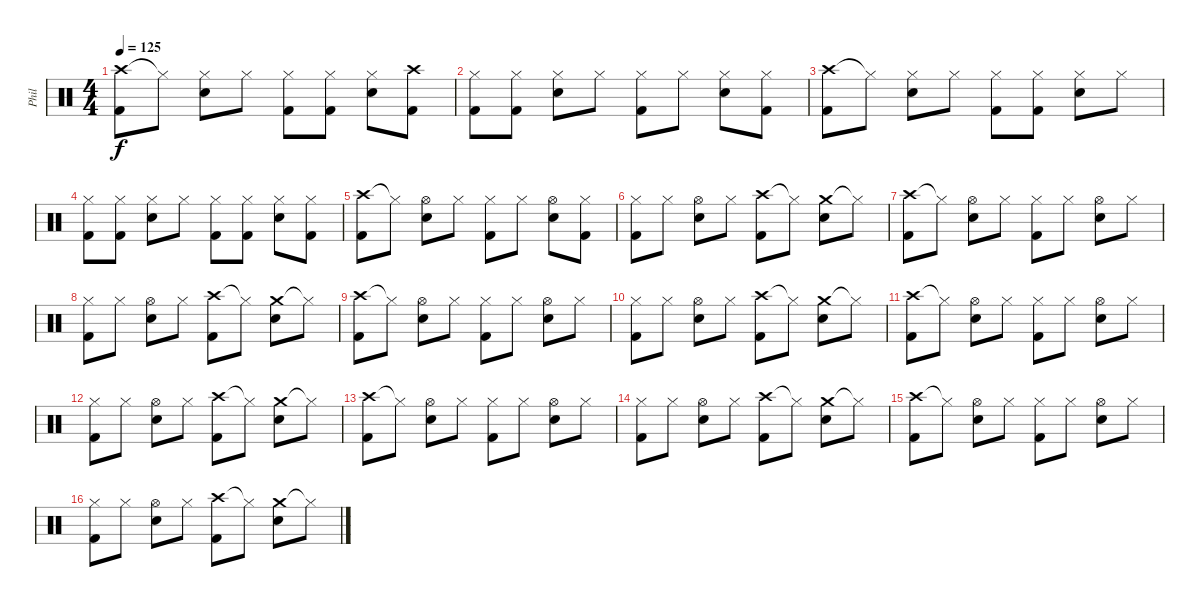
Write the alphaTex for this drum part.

\track ("Phil" "Phil") {instrument percussion}
\staff {score}
\articulation defaults
\ts (4 4)
\tempo 125
\clef neutral
\ks c
("Crash high (hit)" "Kick (hit) 2").8{dy f} "Hi-Hat (closed)"{t}.8 ("Hi-Hat (closed)" "Snare (hit) 2").8 "Hi-Hat (closed)".8 ("Hi-Hat (closed)" "Kick (hit) 2").8 ("Hi-Hat (closed)" "Kick (hit) 2").8 ("Hi-Hat (closed)" "Snare (hit) 2").8 ("Crash high (hit)" "Kick (hit) 2").8 |
("Hi-Hat (closed)" "Kick (hit) 2").8 ("Hi-Hat (closed)" "Kick (hit) 2").8 ("Hi-Hat (closed)" "Snare (hit) 2").8 "Hi-Hat (closed)".8 ("Hi-Hat (closed)" "Kick (hit) 2").8 "Hi-Hat (closed)".8 ("Hi-Hat (closed)" "Snare (hit) 2").8 ("Hi-Hat (closed)" "Kick (hit) 2").8 |
("Crash high (hit)" "Kick (hit) 2").8 "Hi-Hat (closed)"{t}.8 ("Hi-Hat (closed)" "Snare (hit) 2").8 "Hi-Hat (closed)".8 ("Hi-Hat (closed)" "Kick (hit) 2").8 ("Hi-Hat (closed)" "Kick (hit) 2").8 ("Hi-Hat (closed)" "Snare (hit) 2").8 "Hi-Hat (closed)".8 |
("Hi-Hat (closed)" "Kick (hit) 2").8 ("Hi-Hat (closed)" "Kick (hit) 2").8 ("Hi-Hat (closed)" "Snare (hit) 2").8 "Hi-Hat (closed)".8 ("Hi-Hat (closed)" "Kick (hit) 2").8 ("Hi-Hat (closed)" "Kick (hit) 2").8 ("Hi-Hat (closed)" "Snare (hit) 2").8 ("Hi-Hat (closed)" "Kick (hit) 2").8 |
("Crash high (hit)" "Kick (hit) 2").8 "Hi-Hat (closed)"{t}.8 ("Hi-Hat (open)" "Snare (hit) 2").8 "Hi-Hat (closed)".8 ("Hi-Hat (closed)" "Kick (hit) 2").8 "Hi-Hat (closed)".8 ("Hi-Hat (open)" "Snare (hit) 2").8 ("Hi-Hat (closed)" "Kick (hit) 2").8 |
("Hi-Hat (closed)" "Kick (hit) 2").8 "Hi-Hat (closed)".8 ("Hi-Hat (open)" "Snare (hit) 2").8 "Hi-Hat (closed)".8 ("Crash high (hit)" "Kick (hit) 2").8 "Hi-Hat (closed)"{t}.8 ("Crash medium (hit)" "Snare (hit) 2").8 "Hi-Hat (closed)"{t}.8 |
("Crash high (hit)" "Kick (hit) 2").8 "Hi-Hat (closed)"{t}.8 ("Hi-Hat (open)" "Snare (hit) 2").8 "Hi-Hat (closed)".8 ("Hi-Hat (closed)" "Kick (hit) 2").8 "Hi-Hat (closed)".8 ("Hi-Hat (open)" "Snare (hit) 2").8 "Hi-Hat (closed)".8 |
("Hi-Hat (closed)" "Kick (hit) 2").8 "Hi-Hat (closed)".8 ("Hi-Hat (open)" "Snare (hit) 2").8 "Hi-Hat (closed)".8 ("Crash high (hit)" "Kick (hit) 2").8 "Hi-Hat (closed)"{t}.8 ("Crash medium (hit)" "Snare (hit) 2").8 "Hi-Hat (closed)"{t}.8 |
("Crash high (hit)" "Kick (hit) 2").8 "Hi-Hat (closed)"{t}.8 ("Hi-Hat (open)" "Snare (hit) 2").8 "Hi-Hat (closed)".8 ("Hi-Hat (closed)" "Kick (hit) 2").8 "Hi-Hat (closed)".8 ("Hi-Hat (open)" "Snare (hit) 2").8 "Hi-Hat (closed)".8 |
("Hi-Hat (closed)" "Kick (hit) 2").8 "Hi-Hat (closed)".8 ("Hi-Hat (open)" "Snare (hit) 2").8 "Hi-Hat (closed)".8 ("Crash high (hit)" "Kick (hit) 2").8 "Hi-Hat (closed)"{t}.8 ("Crash medium (hit)" "Snare (hit) 2").8 "Hi-Hat (closed)"{t}.8 |
("Crash high (hit)" "Kick (hit) 2").8 "Hi-Hat (closed)"{t}.8 ("Hi-Hat (open)" "Snare (hit) 2").8 "Hi-Hat (closed)".8 ("Hi-Hat (closed)" "Kick (hit) 2").8 "Hi-Hat (closed)".8 ("Hi-Hat (open)" "Snare (hit) 2").8 "Hi-Hat (closed)".8 |
("Hi-Hat (closed)" "Kick (hit) 2").8 "Hi-Hat (closed)".8 ("Hi-Hat (open)" "Snare (hit) 2").8 "Hi-Hat (closed)".8 ("Crash high (hit)" "Kick (hit) 2").8 "Hi-Hat (closed)"{t}.8 ("Crash medium (hit)" "Snare (hit) 2").8 "Hi-Hat (closed)"{t}.8 |
("Crash high (hit)" "Kick (hit) 2").8 "Hi-Hat (closed)"{t}.8 ("Hi-Hat (open)" "Snare (hit) 2").8 "Hi-Hat (closed)".8 ("Hi-Hat (closed)" "Kick (hit) 2").8 "Hi-Hat (closed)".8 ("Hi-Hat (open)" "Snare (hit) 2").8 "Hi-Hat (closed)".8 |
("Hi-Hat (closed)" "Kick (hit) 2").8 "Hi-Hat (closed)".8 ("Hi-Hat (open)" "Snare (hit) 2").8 "Hi-Hat (closed)".8 ("Crash high (hit)" "Kick (hit) 2").8 "Hi-Hat (closed)"{t}.8 ("Crash medium (hit)" "Snare (hit) 2").8 "Hi-Hat (closed)"{t}.8 |
("Crash high (hit)" "Kick (hit) 2").8 "Hi-Hat (closed)"{t}.8 ("Hi-Hat (open)" "Snare (hit) 2").8 "Hi-Hat (closed)".8 ("Hi-Hat (closed)" "Kick (hit) 2").8 "Hi-Hat (closed)".8 ("Hi-Hat (open)" "Snare (hit) 2").8 "Hi-Hat (closed)".8 |
("Hi-Hat (closed)" "Kick (hit) 2").8 "Hi-Hat (closed)".8 ("Hi-Hat (open)" "Snare (hit) 2").8 "Hi-Hat (closed)".8 ("Crash high (hit)" "Kick (hit) 2").8 "Hi-Hat (closed)"{t}.8 ("Crash medium (hit)" "Snare (hit) 2").8 "Hi-Hat (closed)"{t}.8
